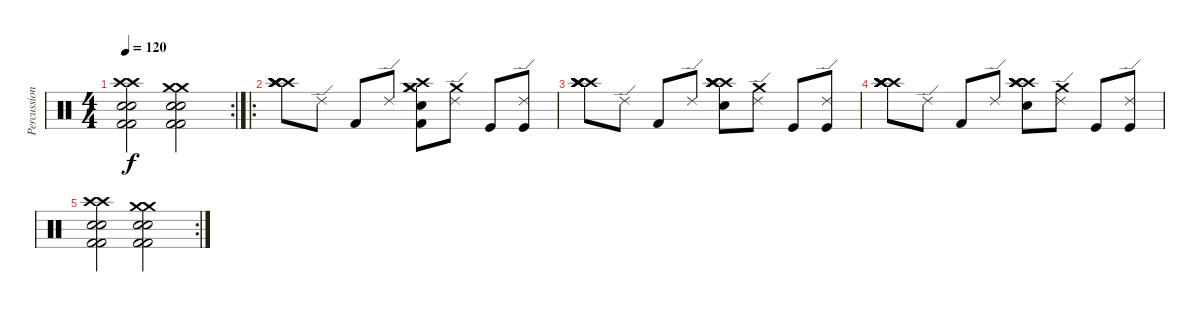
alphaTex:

\track ("Percussion" "Percussion") {instrument percussion}
\staff {score}
\articulation defaults
\rc 2
\ts (4 4)
\tempo 120
\clef neutral
\ks c
("Snare (hit) 2" "Kick (hit) 2" "Crash high (hit)" "Crash high (hit)" "Kick (hit) 2" "Snare (hit) 2").2{dy f} ("Snare (hit) 2" "Kick (hit) 2" "Crash medium (hit)" "Crash medium (hit)" "Kick (hit) 2" "Snare (hit) 2").2 |
\ro
("Crash high (hit)" "Crash high (hit)" "Crash high (hit)" "Crash high (hit)" "Crash high (hit)" "Crash high (hit)").8 "Ride (edge) 2".8 "Kick (hit) 2".8 "Ride (edge) 2".8 ("Kick (hit) 2" "Crash high (hit)" "Snare (hit) 2" "Crash medium (hit)" "Crash medium (hit)" "Crash medium (hit)").8 ("Crash medium (hit)" "Ride (edge) 2").8 "Kick (hit)".8 ("Kick (hit)" "Ride (edge) 2").8 |
("Crash high (hit)" "Crash high (hit)" "Crash high (hit)" "Crash high (hit)" "Crash high (hit)" "Crash high (hit)").8 "Ride (edge) 2".8 "Kick (hit) 2".8 "Ride (edge) 2".8 ("Crash high (hit)" "Crash high (hit)" "Snare (hit) 2" "Crash high (hit)" "Crash high (hit)" "Crash high (hit)").8 ("Crash medium (hit)" "Ride (edge) 2").8 "Kick (hit)".8 ("Kick (hit)" "Ride (edge) 2").8 |
("Crash high (hit)" "Crash high (hit)" "Crash high (hit)" "Crash high (hit)" "Crash high (hit)" "Crash high (hit)").8 "Ride (edge) 2".8 "Kick (hit) 2".8 "Ride (edge) 2".8 ("Crash high (hit)" "Crash high (hit)" "Snare (hit) 2" "Crash high (hit)" "Crash high (hit)" "Crash high (hit)").8 ("Crash medium (hit)" "Ride (edge) 2").8 "Kick (hit)".8 ("Kick (hit)" "Ride (edge) 2").8 |
\rc 2
("Snare (hit) 2" "Kick (hit) 2" "Crash high (hit)" "Crash high (hit)" "Kick (hit) 2" "Snare (hit) 2").2 ("Snare (hit) 2" "Kick (hit) 2" "Crash medium (hit)" "Crash medium (hit)" "Kick (hit) 2" "Snare (hit) 2").2
